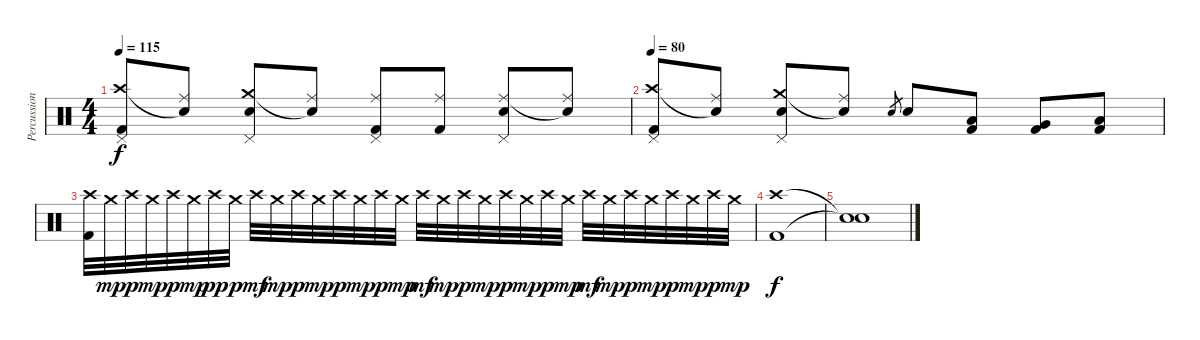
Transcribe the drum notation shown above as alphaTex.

\track ("Percussioni" "Percussion") {instrument percussion}
\staff {score}
\articulation defaults
\ts (4 4)
\tempo 115
\clef neutral
\ks c
("Pedal Hi-Hat (hit)" "Crash high (hit)" "Kick (hit) 2").8{dy f} ("Ride (middle)" "Snare (hit)"{t}).8 ("Pedal Hi-Hat (hit)" "Crash medium (hit)" "Electric Snare (hit)").8 ("Ride (middle)" "Snare (hit)"{t}).8 ("Pedal Hi-Hat (hit)" "Ride (middle)" "Kick (hit) 2").8 ("Ride (middle)" "Kick (hit) 2").8 ("Pedal Hi-Hat (hit)" "Ride (middle)" "Electric Snare (hit)").8 ("Ride (middle)" "Snare (hit)"{t}).8 |
\tempo 80
("Pedal Hi-Hat (hit)" "Crash high (hit)" "Kick (hit) 2").8 ("Ride (middle)" "Snare (hit)"{t}).8 ("Pedal Hi-Hat (hit)" "Crash medium (hit)" "Electric Snare (hit)").8 ("Ride (middle)" "Snare (hit)"{t}).8 "Electric Snare (hit)".8{gr} "Electric Snare (hit)".8 ("Low Tom (hit)" "Kick (hit) 2").8 ("Very Low Tom (hit)" "Kick (hit) 2").8 ("Low Floor Tom (hit)" "Kick (hit) 2").8 |
("Crash high (hit)" "Kick (hit) 2").32 "Crash medium (hit)".32{dy mp} "Crash high (hit)".32{dy p} "Crash medium (hit)".32{dy mp} "Crash high (hit)".32{dy p} "Crash medium (hit)".32{dy mp} "Crash high (hit)".32{dy pp} "Crash medium (hit)".32{dy p} "Crash high (hit)".32{dy mf} "Crash medium (hit)".32{dy mp} "Crash high (hit)".32{dy p} "Crash medium (hit)".32{dy mp} "Crash high (hit)".32{dy p} "Crash medium (hit)".32{dy mp} "Crash high (hit)".32{dy p} "Crash medium (hit)".32{dy mp} "Crash high (hit)".32{dy mf} "Crash medium (hit)".32{dy mp} "Crash high (hit)".32{dy p} "Crash medium (hit)".32{dy mp} "Crash high (hit)".32{dy p} "Crash medium (hit)".32{dy mp} "Crash high (hit)".32{dy p} "Crash medium (hit)".32{dy mp} "Crash high (hit)".32{dy mf} "Crash medium (hit)".32{dy mp} "Crash high (hit)".32{dy p} "Crash medium (hit)".32{dy mp} "Crash high (hit)".32{dy p} "Crash medium (hit)".32{dy mp} "Crash high (hit)".32{dy p} "Crash medium (hit)".32{dy mp} |
("Crash high (hit)" "Kick (hit) 2").1{dy f} |
("Snare (hit)"{t} "Snare (hit)"{t}).1
